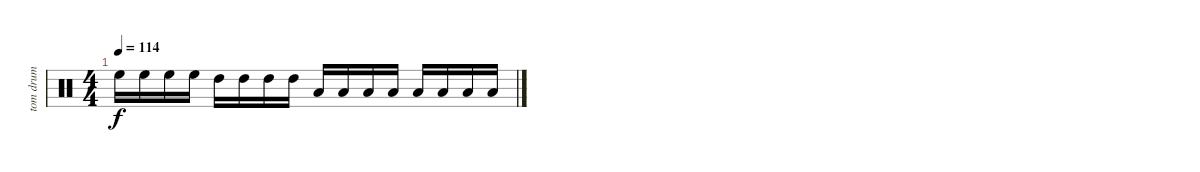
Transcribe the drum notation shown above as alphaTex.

\track ("tom drum" "tom drum") {instrument percussion}
\staff {score}
\articulation defaults
\ts (4 4)
\tempo 114
\clef neutral
\ks c "High Floor Tom (hit)".16{dy f} "High Floor Tom (hit)".16 "High Floor Tom (hit)".16 "High Floor Tom (hit)".16 "High Tom (hit)".16 "High Tom (hit)".16 "High Tom (hit)".16 "High Tom (hit)".16 "Low Tom (hit)".16 "Low Tom (hit)".16 "Low Tom (hit)".16 "Low Tom (hit)".16 "Low Tom (hit)".16 "Low Tom (hit)".16 "Low Tom (hit)".16 "Low Tom (hit)".16
